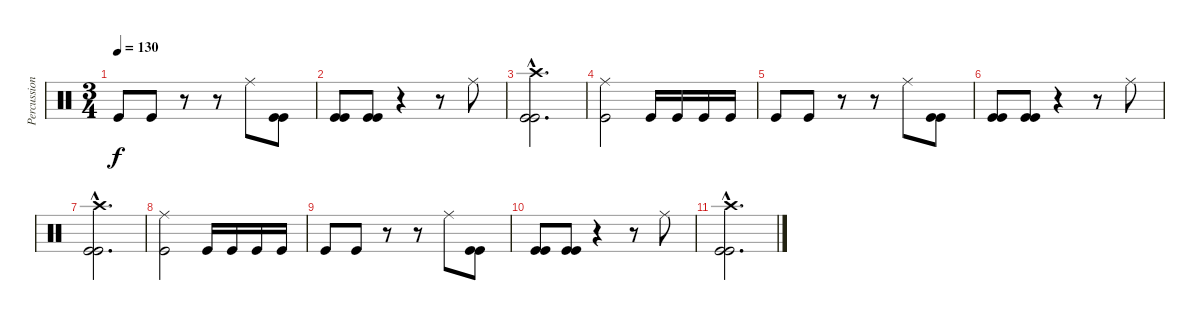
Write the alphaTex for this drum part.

\track ("Percussions" "Percussion") {instrument percussion}
\staff {score}
\articulation defaults
\ts (3 4)
\tempo 130
\clef neutral
\ks c "Kick (hit)".8{dy f} "Kick (hit)".8
r.8 r.8 "Ride (middle)".8 ("Kick (hit)" "Kick (hit)").8 |
("Kick (hit)" "Kick (hit)").8 ("Kick (hit)" "Kick (hit)").8 r.4 r.8 "Ride (middle)".8 |
("Crash high (hit)"{hac} "Kick (hit)"{hac} "Kick (hit)"{hac}).2{d} |
("Ride (middle)" "Kick (hit)").2 "Kick (hit)".16 "Kick (hit)".16 "Kick (hit)".16 "Kick (hit)".16 |
"Kick (hit)".8 "Kick (hit)".8 r.8 r.8 "Ride (middle)".8 ("Kick (hit)" "Kick (hit)").8 |
("Kick (hit)" "Kick (hit)").8 ("Kick (hit)" "Kick (hit)").8 r.4 r.8 "Ride (middle)".8 |
("Crash high (hit)"{hac} "Kick (hit)"{hac} "Kick (hit)"{hac}).2{d} |
("Ride (middle)" "Kick (hit)").2 "Kick (hit)".16 "Kick (hit)".16 "Kick (hit)".16 "Kick (hit)".16 |
"Kick (hit)".8 "Kick (hit)".8 r.8 r.8 "Ride (middle)".8 ("Kick (hit)" "Kick (hit)").8 |
("Kick (hit)" "Kick (hit)").8 ("Kick (hit)" "Kick (hit)").8 r.4 r.8 "Ride (middle)".8 |
("Crash high (hit)"{hac} "Kick (hit)"{hac} "Kick (hit)"{hac}).2{d}
